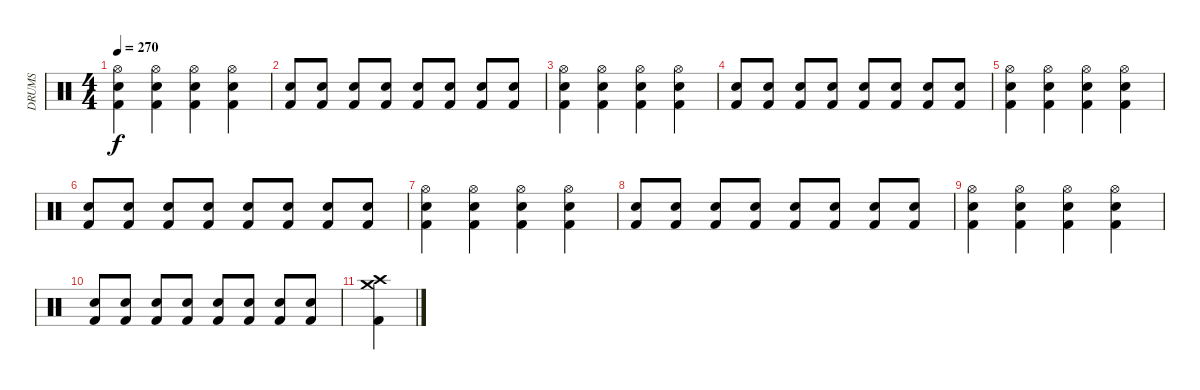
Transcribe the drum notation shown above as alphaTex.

\track ("DRUMS" "DRUMS") {instrument percussion}
\staff {score}
\articulation defaults
\ts (4 4)
\tempo 270
\clef neutral
\ks c
("Hi-Hat (open)" "Snare (hit) 2" "Kick (hit) 2").4{dy f} ("Hi-Hat (open)" "Snare (hit) 2" "Kick (hit) 2").4 ("Hi-Hat (open)" "Snare (hit) 2" "Kick (hit) 2").4 ("Hi-Hat (open)" "Snare (hit) 2" "Kick (hit) 2").4 |
("Snare (hit) 2" "Kick (hit) 2").8 ("Snare (hit) 2" "Kick (hit) 2").8 ("Snare (hit) 2" "Kick (hit) 2").8 ("Snare (hit) 2" "Kick (hit) 2").8 ("Snare (hit) 2" "Kick (hit) 2").8 ("Snare (hit) 2" "Kick (hit) 2").8 ("Snare (hit) 2" "Kick (hit) 2").8 ("Snare (hit) 2" "Kick (hit) 2").8 |
("Hi-Hat (open)" "Snare (hit) 2" "Kick (hit) 2").4 ("Hi-Hat (open)" "Snare (hit) 2" "Kick (hit) 2").4 ("Hi-Hat (open)" "Snare (hit) 2" "Kick (hit) 2").4 ("Hi-Hat (open)" "Snare (hit) 2" "Kick (hit) 2").4 |
("Snare (hit) 2" "Kick (hit) 2").8 ("Snare (hit) 2" "Kick (hit) 2").8 ("Snare (hit) 2" "Kick (hit) 2").8 ("Snare (hit) 2" "Kick (hit) 2").8 ("Snare (hit) 2" "Kick (hit) 2").8 ("Snare (hit) 2" "Kick (hit) 2").8 ("Snare (hit) 2" "Kick (hit) 2").8 ("Snare (hit) 2" "Kick (hit) 2").8 |
("Hi-Hat (open)" "Snare (hit) 2" "Kick (hit) 2").4 ("Hi-Hat (open)" "Snare (hit) 2" "Kick (hit) 2").4 ("Hi-Hat (open)" "Snare (hit) 2" "Kick (hit) 2").4 ("Hi-Hat (open)" "Snare (hit) 2" "Kick (hit) 2").4 |
("Snare (hit) 2" "Kick (hit) 2").8 ("Snare (hit) 2" "Kick (hit) 2").8 ("Snare (hit) 2" "Kick (hit) 2").8 ("Snare (hit) 2" "Kick (hit) 2").8 ("Snare (hit) 2" "Kick (hit) 2").8 ("Snare (hit) 2" "Kick (hit) 2").8 ("Snare (hit) 2" "Kick (hit) 2").8 ("Snare (hit) 2" "Kick (hit) 2").8 |
("Hi-Hat (open)" "Snare (hit) 2" "Kick (hit) 2").4 ("Hi-Hat (open)" "Snare (hit) 2" "Kick (hit) 2").4 ("Hi-Hat (open)" "Snare (hit) 2" "Kick (hit) 2").4 ("Hi-Hat (open)" "Snare (hit) 2" "Kick (hit) 2").4 |
("Snare (hit) 2" "Kick (hit) 2").8 ("Snare (hit) 2" "Kick (hit) 2").8 ("Snare (hit) 2" "Kick (hit) 2").8 ("Snare (hit) 2" "Kick (hit) 2").8 ("Snare (hit) 2" "Kick (hit) 2").8 ("Snare (hit) 2" "Kick (hit) 2").8 ("Snare (hit) 2" "Kick (hit) 2").8 ("Snare (hit) 2" "Kick (hit) 2").8 |
("Hi-Hat (open)" "Snare (hit) 2" "Kick (hit) 2").4 ("Hi-Hat (open)" "Snare (hit) 2" "Kick (hit) 2").4 ("Hi-Hat (open)" "Snare (hit) 2" "Kick (hit) 2").4 ("Hi-Hat (open)" "Snare (hit) 2" "Kick (hit) 2").4 |
("Snare (hit) 2" "Kick (hit) 2").8 ("Snare (hit) 2" "Kick (hit) 2").8 ("Snare (hit) 2" "Kick (hit) 2").8 ("Snare (hit) 2" "Kick (hit) 2").8 ("Snare (hit) 2" "Kick (hit) 2").8 ("Snare (hit) 2" "Kick (hit) 2").8 ("Snare (hit) 2" "Kick (hit) 2").8 ("Snare (hit) 2" "Kick (hit) 2").8 |
("Crash high (hit)" "Crash medium (hit)" "Kick (hit) 2").4
